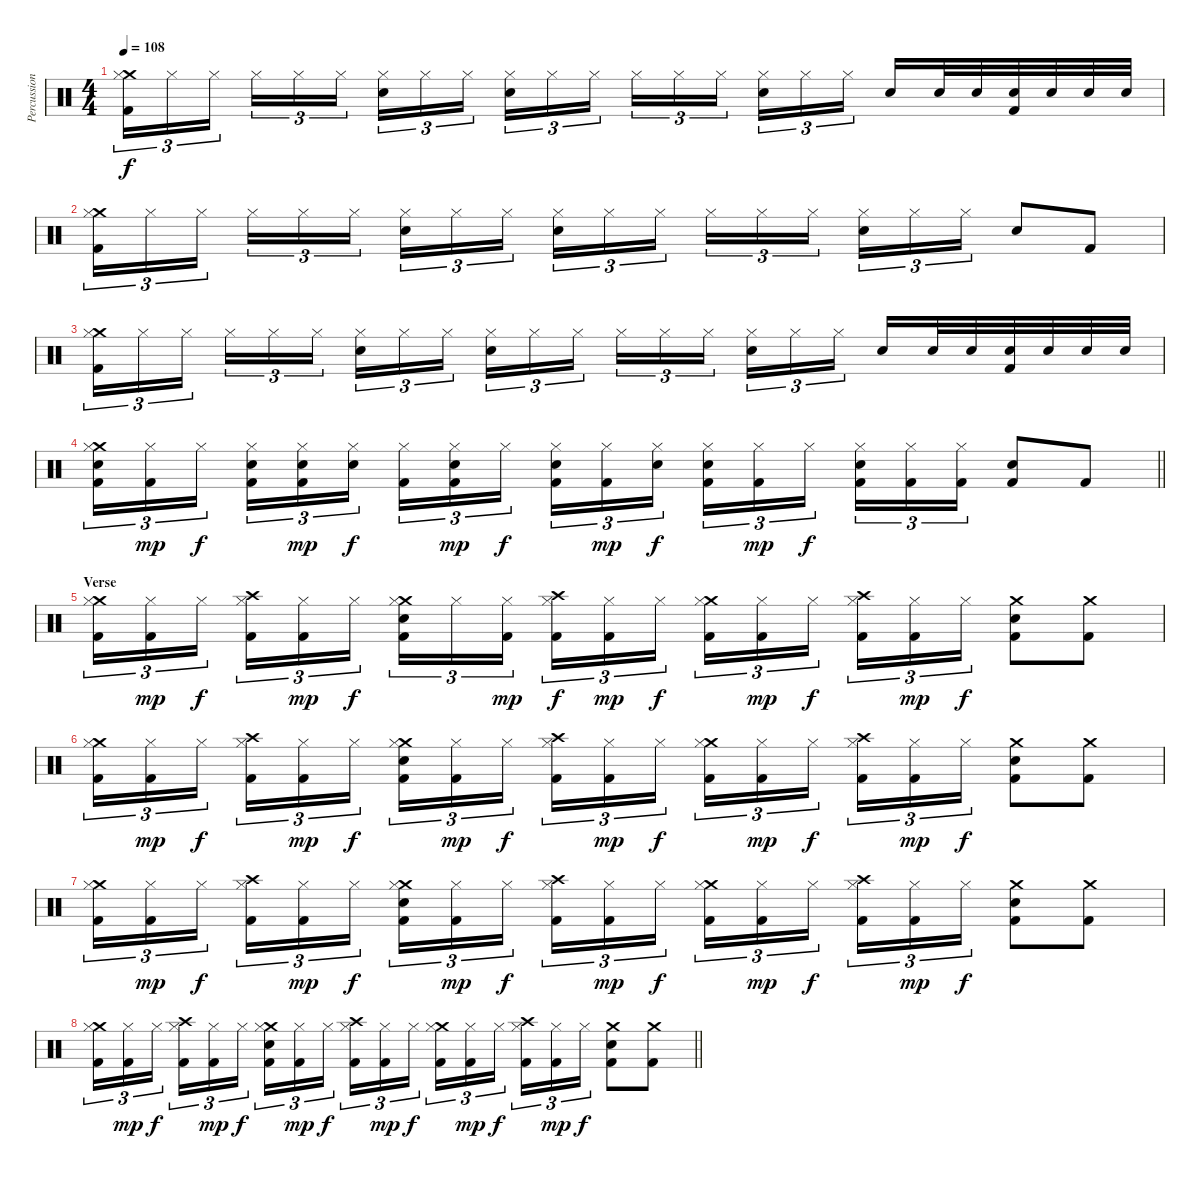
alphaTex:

\track ("Percussion" "Percussion") {instrument percussion}
\staff {score}
\articulation defaults
\ts (4 4)
\tempo 108
\clef neutral
\ks c
("Crash medium (hit)" "Hi-Hat (closed)" "Kick (hit) 2").16{tu (3 2) dy f} "Hi-Hat (closed)".16{tu (3 2)} "Hi-Hat (closed)".16{tu (3 2) beam splitsecondary} "Hi-Hat (closed)".16{tu (3 2)} "Hi-Hat (closed)".16{tu (3 2)} "Hi-Hat (closed)".16{tu (3 2)} ("Hi-Hat (closed)" "Electric Snare (hit)").16{tu (3 2)} "Hi-Hat (closed)".16{tu (3 2)} "Hi-Hat (closed)".16{tu (3 2) beam splitsecondary} ("Hi-Hat (closed)" "Electric Snare (hit)").16{tu (3 2)} "Hi-Hat (closed)".16{tu (3 2)} "Hi-Hat (closed)".16{tu (3 2)} "Hi-Hat (closed)".16{tu (3 2)} "Hi-Hat (closed)".16{tu (3 2)} "Hi-Hat (closed)".16{tu (3 2) beam splitsecondary} ("Hi-Hat (closed)" "Electric Snare (hit)").16{tu (3 2)} "Hi-Hat (closed)".16{tu (3 2)} "Hi-Hat (closed)".16{tu (3 2)} "Electric Snare (hit)".16 "Electric Snare (hit)".32 "Electric Snare (hit)".32 ("Electric Snare (hit)" "Kick (hit) 2").32 "Electric Snare (hit)".32 "Electric Snare (hit)".32 "Electric Snare (hit)".32 |
("Crash medium (hit)" "Hi-Hat (closed)" "Kick (hit) 2").16{tu (3 2)} "Hi-Hat (closed)".16{tu (3 2)} "Hi-Hat (closed)".16{tu (3 2) beam splitsecondary} "Hi-Hat (closed)".16{tu (3 2)} "Hi-Hat (closed)".16{tu (3 2)} "Hi-Hat (closed)".16{tu (3 2)} ("Hi-Hat (closed)" "Electric Snare (hit)").16{tu (3 2)} "Hi-Hat (closed)".16{tu (3 2)} "Hi-Hat (closed)".16{tu (3 2) beam splitsecondary} ("Hi-Hat (closed)" "Electric Snare (hit)").16{tu (3 2)} "Hi-Hat (closed)".16{tu (3 2)} "Hi-Hat (closed)".16{tu (3 2)} "Hi-Hat (closed)".16{tu (3 2)} "Hi-Hat (closed)".16{tu (3 2)} "Hi-Hat (closed)".16{tu (3 2) beam splitsecondary} ("Hi-Hat (closed)" "Electric Snare (hit)").16{tu (3 2)} "Hi-Hat (closed)".16{tu (3 2)} "Hi-Hat (closed)".16{tu (3 2)} "Electric Snare (hit)".8 "Kick (hit) 2".8 |
("Crash medium (hit)" "Hi-Hat (closed)" "Kick (hit) 2").16{tu (3 2)} "Hi-Hat (closed)".16{tu (3 2)} "Hi-Hat (closed)".16{tu (3 2) beam splitsecondary} "Hi-Hat (closed)".16{tu (3 2)} "Hi-Hat (closed)".16{tu (3 2)} "Hi-Hat (closed)".16{tu (3 2)} ("Hi-Hat (closed)" "Electric Snare (hit)").16{tu (3 2)} "Hi-Hat (closed)".16{tu (3 2)} "Hi-Hat (closed)".16{tu (3 2) beam splitsecondary} ("Hi-Hat (closed)" "Electric Snare (hit)").16{tu (3 2)} "Hi-Hat (closed)".16{tu (3 2)} "Hi-Hat (closed)".16{tu (3 2)} "Hi-Hat (closed)".16{tu (3 2)} "Hi-Hat (closed)".16{tu (3 2)} "Hi-Hat (closed)".16{tu (3 2) beam splitsecondary} ("Hi-Hat (closed)" "Electric Snare (hit)").16{tu (3 2)} "Hi-Hat (closed)".16{tu (3 2)} "Hi-Hat (closed)".16{tu (3 2)} "Electric Snare (hit)".16 "Electric Snare (hit)".32 "Electric Snare (hit)".32 ("Electric Snare (hit)" "Kick (hit) 2").32 "Electric Snare (hit)".32 "Electric Snare (hit)".32 "Electric Snare (hit)".32 |
\barLineRight lightlight
("Crash medium (hit)" "Hi-Hat (closed)" "Electric Snare (hit)" "Kick (hit) 2").16{tu (3 2)} ("Hi-Hat (closed)" "Kick (hit) 2").16{tu (3 2) dy mp} "Hi-Hat (closed)".16{tu (3 2) dy f beam splitsecondary} ("Hi-Hat (closed)" "Electric Snare (hit)" "Kick (hit) 2").16{tu (3 2)} ("Hi-Hat (closed)" "Electric Snare (hit)" "Kick (hit) 2").16{tu (3 2) dy mp} ("Hi-Hat (closed)" "Electric Snare (hit)").16{tu (3 2) dy f} ("Hi-Hat (closed)" "Kick (hit) 2").16{tu (3 2)} ("Hi-Hat (closed)" "Electric Snare (hit)" "Kick (hit) 2").16{tu (3 2) dy mp} "Hi-Hat (closed)".16{tu (3 2) dy f beam splitsecondary} ("Hi-Hat (closed)" "Electric Snare (hit)" "Kick (hit) 2").16{tu (3 2)} ("Hi-Hat (closed)" "Kick (hit) 2").16{tu (3 2) dy mp} ("Hi-Hat (closed)" "Electric Snare (hit)").16{tu (3 2) dy f} ("Hi-Hat (closed)" "Electric Snare (hit)" "Kick (hit) 2").16{tu (3 2)} ("Hi-Hat (closed)" "Kick (hit) 2").16{tu (3 2) dy mp} "Hi-Hat (closed)".16{tu (3 2) dy f beam splitsecondary} ("Hi-Hat (closed)" "Electric Snare (hit)" "Kick (hit) 2").16{tu (3 2)} ("Hi-Hat (closed)" "Kick (hit) 2").16{tu (3 2)} ("Hi-Hat (closed)" "Kick (hit) 2").16{tu (3 2)} ("Electric Snare (hit)" "Kick (hit) 2").8 "Kick (hit) 2".8 |
\section ("" "Verse")
("Crash medium (hit)" "Hi-Hat (closed)" "Kick (hit) 2").16{tu (3 2)} ("Hi-Hat (closed)" "Kick (hit) 2").16{tu (3 2) dy mp} "Hi-Hat (closed)".16{tu (3 2) dy f beam splitsecondary} ("Crash high (hit)" "Hi-Hat (closed)" "Kick (hit) 2").16{tu (3 2)} ("Hi-Hat (closed)" "Kick (hit) 2").16{tu (3 2) dy mp} "Hi-Hat (closed)".16{tu (3 2) dy f} ("Crash medium (hit)" "Hi-Hat (closed)" "Electric Snare (hit)" "Kick (hit) 2").16{tu (3 2)} "Hi-Hat (closed)".16{tu (3 2)} ("Hi-Hat (closed)" "Kick (hit) 2").16{tu (3 2) dy mp beam splitsecondary} ("Crash high (hit)" "Hi-Hat (closed)" "Kick (hit) 2").16{tu (3 2) dy f} ("Hi-Hat (closed)" "Kick (hit) 2").16{tu (3 2) dy mp} "Hi-Hat (closed)".16{tu (3 2) dy f} ("Crash medium (hit)" "Hi-Hat (closed)" "Kick (hit) 2").16{tu (3 2)} ("Hi-Hat (closed)" "Kick (hit) 2").16{tu (3 2) dy mp} "Hi-Hat (closed)".16{tu (3 2) dy f beam splitsecondary} ("Crash high (hit)" "Hi-Hat (closed)" "Kick (hit) 2").16{tu (3 2)} ("Hi-Hat (closed)" "Kick (hit) 2").16{tu (3 2) dy mp} "Hi-Hat (closed)".16{tu (3 2) dy f} ("Crash medium (hit)" "Electric Snare (hit)" "Kick (hit) 2").8 ("Crash medium (hit)" "Kick (hit) 2").8 |
("Crash medium (hit)" "Hi-Hat (closed)" "Kick (hit) 2").16{tu (3 2)} ("Hi-Hat (closed)" "Kick (hit) 2").16{tu (3 2) dy mp} "Hi-Hat (closed)".16{tu (3 2) dy f beam splitsecondary} ("Crash high (hit)" "Hi-Hat (closed)" "Kick (hit) 2").16{tu (3 2)} ("Hi-Hat (closed)" "Kick (hit) 2").16{tu (3 2) dy mp} "Hi-Hat (closed)".16{tu (3 2) dy f} ("Crash medium (hit)" "Hi-Hat (closed)" "Electric Snare (hit)" "Kick (hit) 2").16{tu (3 2)} ("Hi-Hat (closed)" "Kick (hit) 2").16{tu (3 2) dy mp} "Hi-Hat (closed)".16{tu (3 2) dy f beam splitsecondary} ("Crash high (hit)" "Hi-Hat (closed)" "Kick (hit) 2").16{tu (3 2)} ("Hi-Hat (closed)" "Kick (hit) 2").16{tu (3 2) dy mp} "Hi-Hat (closed)".16{tu (3 2) dy f} ("Crash medium (hit)" "Hi-Hat (closed)" "Kick (hit) 2").16{tu (3 2)} ("Hi-Hat (closed)" "Kick (hit) 2").16{tu (3 2) dy mp} "Hi-Hat (closed)".16{tu (3 2) dy f beam splitsecondary} ("Crash high (hit)" "Hi-Hat (closed)" "Kick (hit) 2").16{tu (3 2)} ("Hi-Hat (closed)" "Kick (hit) 2").16{tu (3 2) dy mp} "Hi-Hat (closed)".16{tu (3 2) dy f} ("Crash medium (hit)" "Electric Snare (hit)" "Kick (hit) 2").8 ("Crash medium (hit)" "Kick (hit) 2").8 |
("Crash medium (hit)" "Hi-Hat (closed)" "Kick (hit) 2").16{tu (3 2)} ("Hi-Hat (closed)" "Kick (hit) 2").16{tu (3 2) dy mp} "Hi-Hat (closed)".16{tu (3 2) dy f beam splitsecondary} ("Crash high (hit)" "Hi-Hat (closed)" "Kick (hit) 2").16{tu (3 2)} ("Hi-Hat (closed)" "Kick (hit) 2").16{tu (3 2) dy mp} "Hi-Hat (closed)".16{tu (3 2) dy f} ("Crash medium (hit)" "Hi-Hat (closed)" "Electric Snare (hit)" "Kick (hit) 2").16{tu (3 2)} ("Hi-Hat (closed)" "Kick (hit) 2").16{tu (3 2) dy mp} "Hi-Hat (closed)".16{tu (3 2) dy f beam splitsecondary} ("Crash high (hit)" "Hi-Hat (closed)" "Kick (hit) 2").16{tu (3 2)} ("Hi-Hat (closed)" "Kick (hit) 2").16{tu (3 2) dy mp} "Hi-Hat (closed)".16{tu (3 2) dy f} ("Crash medium (hit)" "Hi-Hat (closed)" "Kick (hit) 2").16{tu (3 2)} ("Hi-Hat (closed)" "Kick (hit) 2").16{tu (3 2) dy mp} "Hi-Hat (closed)".16{tu (3 2) dy f beam splitsecondary} ("Crash high (hit)" "Hi-Hat (closed)" "Kick (hit) 2").16{tu (3 2)} ("Hi-Hat (closed)" "Kick (hit) 2").16{tu (3 2) dy mp} "Hi-Hat (closed)".16{tu (3 2) dy f} ("Crash medium (hit)" "Electric Snare (hit)" "Kick (hit) 2").8 ("Crash medium (hit)" "Kick (hit) 2").8 |
\barLineRight lightlight
("Crash medium (hit)" "Hi-Hat (closed)" "Kick (hit) 2").16{tu (3 2)} ("Hi-Hat (closed)" "Kick (hit) 2").16{tu (3 2) dy mp} "Hi-Hat (closed)".16{tu (3 2) dy f beam splitsecondary} ("Crash high (hit)" "Hi-Hat (closed)" "Kick (hit) 2").16{tu (3 2)} ("Hi-Hat (closed)" "Kick (hit) 2").16{tu (3 2) dy mp} "Hi-Hat (closed)".16{tu (3 2) dy f} ("Crash medium (hit)" "Hi-Hat (closed)" "Electric Snare (hit)" "Kick (hit) 2").16{tu (3 2)} ("Hi-Hat (closed)" "Kick (hit) 2").16{tu (3 2) dy mp} "Hi-Hat (closed)".16{tu (3 2) dy f beam splitsecondary} ("Crash high (hit)" "Hi-Hat (closed)" "Kick (hit) 2").16{tu (3 2)} ("Hi-Hat (closed)" "Kick (hit) 2").16{tu (3 2) dy mp} "Hi-Hat (closed)".16{tu (3 2) dy f} ("Crash medium (hit)" "Hi-Hat (closed)" "Kick (hit) 2").16{tu (3 2)} ("Hi-Hat (closed)" "Kick (hit) 2").16{tu (3 2) dy mp} "Hi-Hat (closed)".16{tu (3 2) dy f beam splitsecondary} ("Crash high (hit)" "Hi-Hat (closed)" "Kick (hit) 2").16{tu (3 2)} ("Hi-Hat (closed)" "Kick (hit) 2").16{tu (3 2) dy mp} "Hi-Hat (closed)".16{tu (3 2) dy f} ("Crash medium (hit)" "Electric Snare (hit)" "Kick (hit) 2").8 ("Crash medium (hit)" "Kick (hit) 2").8
